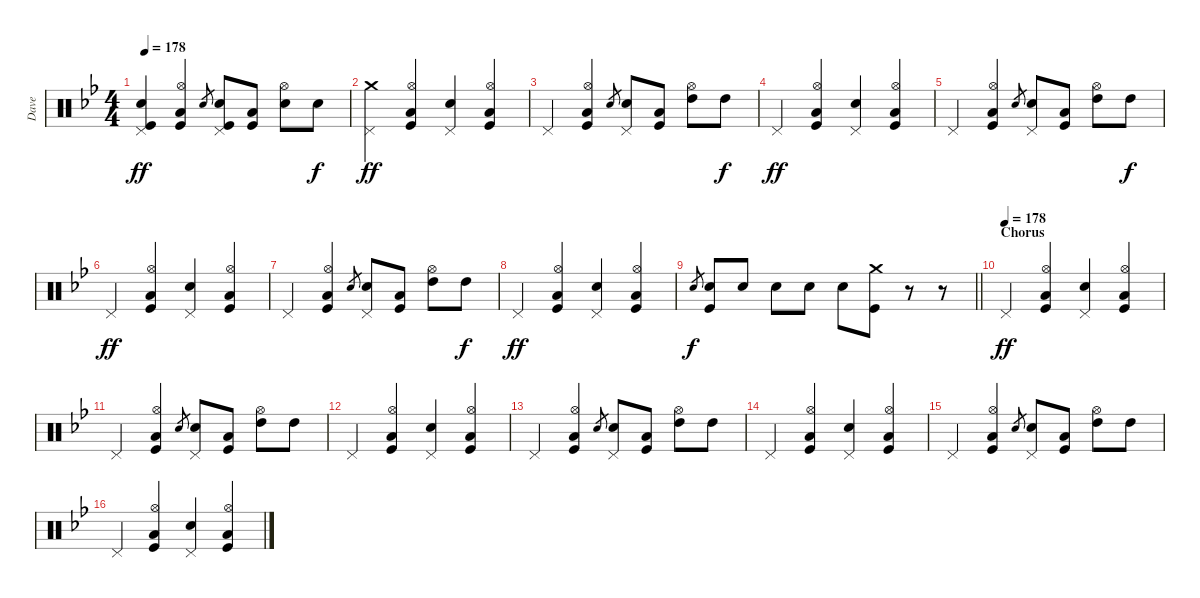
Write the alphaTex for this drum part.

\track ("Dave" "Dave") {instrument percussion}
\staff {score}
\articulation defaults
\ts (4 4)
\tempo 178
\clef neutral
\ks gminor
("Pedal Hi-Hat (hit)" "Snare (hit) 2" "Kick (hit)").4{dy ff} ("Hi-Hat (open)" "Low Floor Tom (hit)" "Kick (hit)").4 "Snare (hit) 2".8{gr} ("Pedal Hi-Hat (hit)" "Snare (hit) 2" "Kick (hit)").8 ("Low Floor Tom (hit)" "Kick (hit)").8 ("Hi-Hat (open)" "Snare (hit) 2").8 "Snare (hit) 2".8{dy f} |
("Crash medium (hit)" "Pedal Hi-Hat (hit)").4{dy ff} ("Hi-Hat (open)" "Low Floor Tom (hit)" "Kick (hit)").4 ("Pedal Hi-Hat (hit)" "Snare (hit) 2").4 ("Hi-Hat (open)" "Low Floor Tom (hit)" "Kick (hit)").4 |
"Pedal Hi-Hat (hit)".4 ("Hi-Hat (open)" "Low Floor Tom (hit)" "Kick (hit)").4 "Snare (hit) 2".8{gr} ("Pedal Hi-Hat (hit)" "Snare (hit) 2").8 ("Low Floor Tom (hit)" "Kick (hit)").8 ("High Tom (hit)" "Hi-Hat (open)").8 "High Tom (hit)".8{dy f} |
"Pedal Hi-Hat (hit)".4{dy ff} ("Hi-Hat (open)" "Low Floor Tom (hit)" "Kick (hit)").4 ("Pedal Hi-Hat (hit)" "Snare (hit) 2").4 ("Hi-Hat (open)" "Low Floor Tom (hit)" "Kick (hit)").4 |
"Pedal Hi-Hat (hit)".4 ("Hi-Hat (open)" "Low Floor Tom (hit)" "Kick (hit)").4 "Snare (hit) 2".8{gr} ("Pedal Hi-Hat (hit)" "Snare (hit) 2").8 ("Low Floor Tom (hit)" "Kick (hit)").8 ("High Tom (hit)" "Hi-Hat (open)").8 "High Tom (hit)".8{dy f} |
"Pedal Hi-Hat (hit)".4{dy ff} ("Hi-Hat (open)" "Low Floor Tom (hit)" "Kick (hit)").4 ("Pedal Hi-Hat (hit)" "Snare (hit) 2").4 ("Hi-Hat (open)" "Low Floor Tom (hit)" "Kick (hit)").4 |
"Pedal Hi-Hat (hit)".4 ("Hi-Hat (open)" "Low Floor Tom (hit)" "Kick (hit)").4 "Snare (hit) 2".8{gr} ("Pedal Hi-Hat (hit)" "Snare (hit) 2").8 ("Low Floor Tom (hit)" "Kick (hit)").8 ("High Tom (hit)" "Hi-Hat (open)").8 "High Tom (hit)".8{dy f} |
"Pedal Hi-Hat (hit)".4{dy ff} ("Hi-Hat (open)" "Low Floor Tom (hit)" "Kick (hit)").4 ("Pedal Hi-Hat (hit)" "Snare (hit) 2").4 ("Hi-Hat (open)" "Low Floor Tom (hit)" "Kick (hit)").4 |
\barLineRight lightlight "Snare (hit) 2".8{gr dy f}
("Snare (hit) 2" "Kick (hit)").8 "Snare (hit) 2".8 "Snare (hit) 2".8 "Snare (hit) 2".8 "Snare (hit) 2".8 ("Crash medium (hit)" "Kick (hit)").8 r.8 r.8 |
\section ("" "Chorus")
\tempo (178)
"Pedal Hi-Hat (hit)".4{dy ff} ("Hi-Hat (open)" "Low Floor Tom (hit)" "Kick (hit)").4 ("Pedal Hi-Hat (hit)" "Snare (hit) 2").4 ("Hi-Hat (open)" "Low Floor Tom (hit)" "Kick (hit)").4 |
"Pedal Hi-Hat (hit)".4 ("Hi-Hat (open)" "Low Floor Tom (hit)" "Kick (hit)").4 "Snare (hit) 2".8{gr} ("Pedal Hi-Hat (hit)" "Snare (hit) 2").8 ("Low Floor Tom (hit)" "Kick (hit)").8 ("High Tom (hit)" "Hi-Hat (open)").8 "High Tom (hit)".8 |
"Pedal Hi-Hat (hit)".4 ("Hi-Hat (open)" "Low Floor Tom (hit)" "Kick (hit)").4 ("Pedal Hi-Hat (hit)" "Snare (hit) 2").4 ("Hi-Hat (open)" "Low Floor Tom (hit)" "Kick (hit)").4 |
"Pedal Hi-Hat (hit)".4 ("Hi-Hat (open)" "Low Floor Tom (hit)" "Kick (hit)").4 "Snare (hit) 2".8{gr} ("Pedal Hi-Hat (hit)" "Snare (hit) 2").8 ("Low Floor Tom (hit)" "Kick (hit)").8 ("High Tom (hit)" "Hi-Hat (open)").8 "High Tom (hit)".8 |
"Pedal Hi-Hat (hit)".4 ("Hi-Hat (open)" "Low Floor Tom (hit)" "Kick (hit)").4 ("Pedal Hi-Hat (hit)" "Snare (hit) 2").4 ("Hi-Hat (open)" "Low Floor Tom (hit)" "Kick (hit)").4 |
"Pedal Hi-Hat (hit)".4 ("Hi-Hat (open)" "Low Floor Tom (hit)" "Kick (hit)").4 "Snare (hit) 2".8{gr} ("Pedal Hi-Hat (hit)" "Snare (hit) 2").8 ("Low Floor Tom (hit)" "Kick (hit)").8 ("High Tom (hit)" "Hi-Hat (open)").8 "High Tom (hit)".8 |
"Pedal Hi-Hat (hit)".4 ("Hi-Hat (open)" "Low Floor Tom (hit)" "Kick (hit)").4 ("Pedal Hi-Hat (hit)" "Snare (hit) 2").4 ("Hi-Hat (open)" "Low Floor Tom (hit)" "Kick (hit)").4
